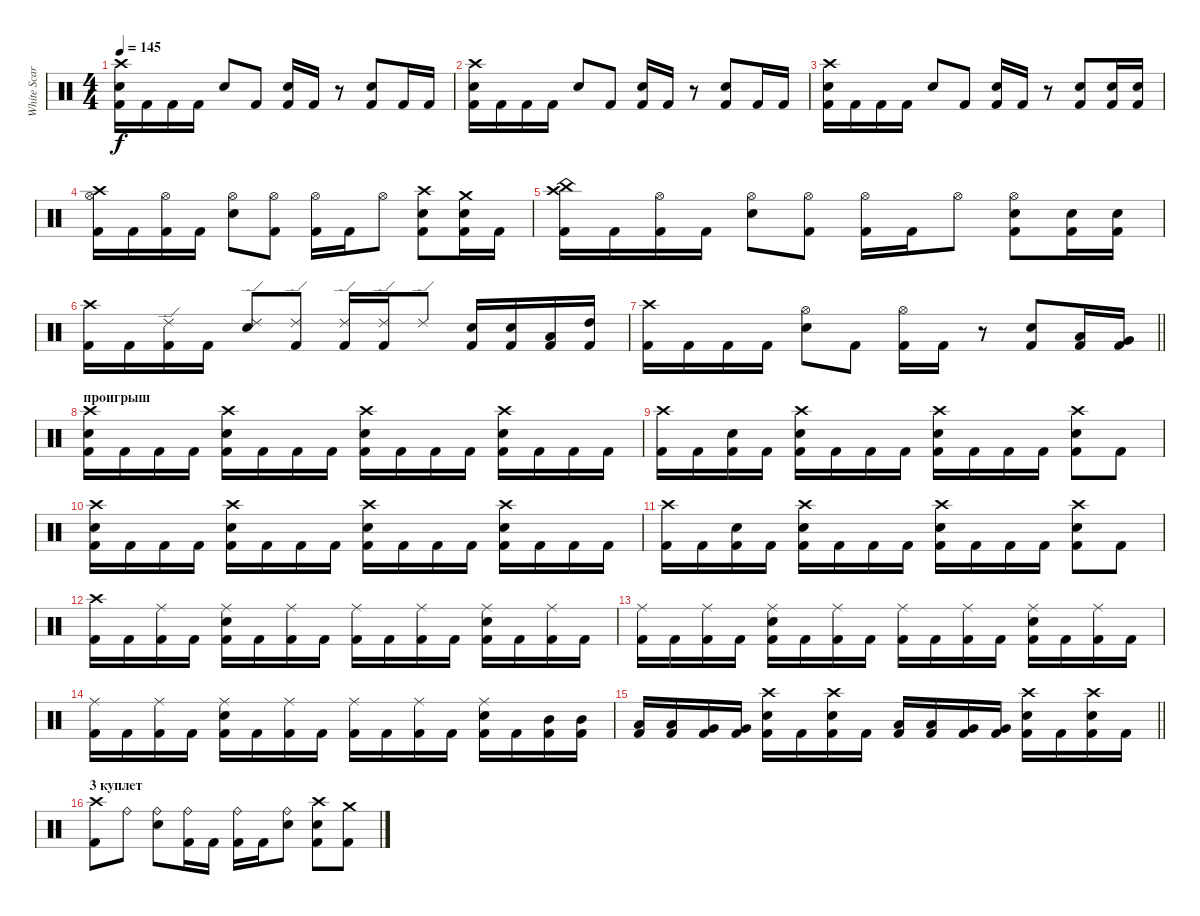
\track ("White Scar" "White Scar") {instrument percussion}
\staff {score}
\articulation defaults
\ts (4 4)
\tempo 145
\clef neutral
\ks c
("Crash high (hit)" "Snare (hit) 2" "Kick (hit) 2").16{dy f} "Kick (hit) 2".16 "Kick (hit) 2".16 "Kick (hit) 2".16 "Snare (hit) 2".8 "Kick (hit) 2".8 ("Snare (hit) 2" "Kick (hit) 2").16 "Kick (hit) 2".16 r.8 ("Snare (hit) 2" "Kick (hit) 2").8 "Kick (hit) 2".16 "Kick (hit) 2".16 |
("Crash high (hit)" "Snare (hit) 2" "Kick (hit) 2").16 "Kick (hit) 2".16 "Kick (hit) 2".16 "Kick (hit) 2".16 "Snare (hit) 2".8 "Kick (hit) 2".8 ("Snare (hit) 2" "Kick (hit) 2").16 "Kick (hit) 2".16 r.8 ("Snare (hit) 2" "Kick (hit) 2").8 "Kick (hit) 2".16 "Kick (hit) 2".16 |
("Crash high (hit)" "Snare (hit) 2" "Kick (hit) 2").16 "Kick (hit) 2".16 "Kick (hit) 2".16 "Kick (hit) 2".16 "Snare (hit) 2".8 "Kick (hit) 2".8 ("Snare (hit) 2" "Kick (hit) 2").16 "Kick (hit) 2".16 r.8 ("Snare (hit) 2" "Kick (hit) 2").8 ("Snare (hit) 2" "Kick (hit) 2").16 ("Snare (hit) 2" "Kick (hit) 2").16 |
("Crash high (hit)" "Hi-Hat (open)" "Kick (hit) 2").16 "Kick (hit) 2".16 ("Hi-Hat (open)" "Kick (hit) 2").16 "Kick (hit) 2".16 ("Snare (hit) 2" "Hi-Hat (open)").8 ("Hi-Hat (open)" "Kick (hit) 2").8 ("Hi-Hat (open)" "Kick (hit) 2").16 "Kick (hit) 2".16 "Hi-Hat (open)".8 ("Snare (hit) 2" "Crash high (hit)" "Kick (hit) 2").8 ("Snare (hit) 2" "Crash medium (hit)" "Kick (hit) 2").16 "Kick (hit) 2".16 |
("Crash high (hit)" "China (hit)" "Kick (hit) 2").16 "Kick (hit) 2".16 ("Hi-Hat (open)" "Kick (hit) 2").16 "Kick (hit) 2".16 ("Snare (hit) 2" "Hi-Hat (open)").8 ("Hi-Hat (open)" "Kick (hit) 2").8 ("Hi-Hat (open)" "Kick (hit) 2").16 "Kick (hit) 2".16 "Hi-Hat (open)".8 ("Snare (hit) 2" "Hi-Hat (open)" "Kick (hit) 2").8 ("Snare (hit) 2" "Kick (hit) 2").16 ("Snare (hit) 2" "Kick (hit) 2").16 |
("Crash high (hit)" "Kick (hit) 2").16 "Kick (hit) 2".16 ("Ride (edge) 2" "Kick (hit) 2").16 "Kick (hit) 2".16 ("Snare (hit) 2" "Ride (edge) 2").8 ("Ride (edge) 2" "Kick (hit) 2").8 ("Ride (edge) 2" "Kick (hit) 2").16 ("Ride (edge) 2" "Kick (hit) 2").16 "Ride (edge) 2".8 ("Snare (hit) 2" "Kick (hit) 2").16 ("Snare (hit) 2" "Kick (hit) 2").16 ("Low Tom (hit)" "Kick (hit) 2").16 ("High Tom (hit)" "Kick (hit) 2").16 |
\barLineRight lightlight
("Crash high (hit)" "Kick (hit) 2").16 "Kick (hit) 2".16 "Kick (hit) 2".16 "Kick (hit) 2".16 ("Snare (hit) 2" "Hi-Hat (open)").8 "Kick (hit) 2".8 ("Hi-Hat (open)" "Kick (hit) 2").16 "Kick (hit) 2".16 r.8 ("Snare (hit) 2" "Kick (hit) 2").8 ("Low Tom (hit)" "Kick (hit) 2").16 ("Very Low Tom (hit)" "Kick (hit) 2").16 |
\section ("" "проигрыш")
("Crash high (hit)" "Snare (hit) 2" "Kick (hit) 2").16 "Kick (hit) 2".16 "Kick (hit) 2".16 "Kick (hit) 2".16 ("Crash high (hit)" "Snare (hit) 2" "Kick (hit) 2").16 "Kick (hit) 2".16 "Kick (hit) 2".16 "Kick (hit) 2".16 ("Crash high (hit)" "Snare (hit) 2" "Kick (hit) 2").16 "Kick (hit) 2".16 "Kick (hit) 2".16 "Kick (hit) 2".16 ("Crash high (hit)" "Snare (hit) 2" "Kick (hit) 2").16 "Kick (hit) 2".16 "Kick (hit) 2".16 "Kick (hit) 2".16 |
("Crash high (hit)" "Kick (hit) 2").16 "Kick (hit) 2".16 ("Snare (hit) 2" "Kick (hit) 2").16 "Kick (hit) 2".16 ("Crash high (hit)" "Snare (hit) 2" "Kick (hit) 2").16 "Kick (hit) 2".16 "Kick (hit) 2".16 "Kick (hit) 2".16 ("Crash high (hit)" "Snare (hit) 2" "Kick (hit) 2").16 "Kick (hit) 2".16 "Kick (hit) 2".16 "Kick (hit) 2".16 ("Crash high (hit)" "Snare (hit) 2" "Kick (hit) 2").8 "Kick (hit) 2".8 |
("Crash high (hit)" "Snare (hit) 2" "Kick (hit) 2").16 "Kick (hit) 2".16 "Kick (hit) 2".16 "Kick (hit) 2".16 ("Crash high (hit)" "Snare (hit) 2" "Kick (hit) 2").16 "Kick (hit) 2".16 "Kick (hit) 2".16 "Kick (hit) 2".16 ("Crash high (hit)" "Snare (hit) 2" "Kick (hit) 2").16 "Kick (hit) 2".16 "Kick (hit) 2".16 "Kick (hit) 2".16 ("Crash high (hit)" "Snare (hit) 2" "Kick (hit) 2").16 "Kick (hit) 2".16 "Kick (hit) 2".16 "Kick (hit) 2".16 |
("Crash high (hit)" "Kick (hit) 2").16 "Kick (hit) 2".16 ("Snare (hit) 2" "Kick (hit) 2").16 "Kick (hit) 2".16 ("Crash high (hit)" "Snare (hit) 2" "Kick (hit) 2").16 "Kick (hit) 2".16 "Kick (hit) 2".16 "Kick (hit) 2".16 ("Crash high (hit)" "Snare (hit) 2" "Kick (hit) 2").16 "Kick (hit) 2".16 "Kick (hit) 2".16 "Kick (hit) 2".16 ("Crash high (hit)" "Snare (hit) 2" "Kick (hit) 2").8 "Kick (hit) 2".8 |
("Crash high (hit)" "Kick (hit) 2").16 "Kick (hit) 2".16 ("Ride (middle)" "Kick (hit) 2").16 "Kick (hit) 2".16 ("Ride (middle)" "Snare (hit) 2" "Kick (hit) 2").16 "Kick (hit) 2".16 ("Ride (middle)" "Kick (hit) 2").16 "Kick (hit) 2".16 ("Ride (middle)" "Kick (hit) 2").16 "Kick (hit) 2".16 ("Ride (middle)" "Kick (hit) 2").16 "Kick (hit) 2".16 ("Ride (middle)" "Snare (hit) 2" "Kick (hit) 2").16 "Kick (hit) 2".16 ("Ride (middle)" "Kick (hit) 2").16 "Kick (hit) 2".16 |
("Ride (middle)" "Kick (hit) 2").16 "Kick (hit) 2".16 ("Ride (middle)" "Kick (hit) 2").16 "Kick (hit) 2".16 ("Ride (middle)" "Snare (hit) 2" "Kick (hit) 2").16 "Kick (hit) 2".16 ("Ride (middle)" "Kick (hit) 2").16 "Kick (hit) 2".16 ("Ride (middle)" "Kick (hit) 2").16 "Kick (hit) 2".16 ("Ride (middle)" "Kick (hit) 2").16 "Kick (hit) 2".16 ("Ride (middle)" "Snare (hit) 2" "Kick (hit) 2").16 "Kick (hit) 2".16 ("Ride (middle)" "Kick (hit) 2").16 "Kick (hit) 2".16 |
("Ride (middle)" "Kick (hit) 2").16 "Kick (hit) 2".16 ("Ride (middle)" "Kick (hit) 2").16 "Kick (hit) 2".16 ("Ride (middle)" "Snare (hit) 2" "Kick (hit) 2").16 "Kick (hit) 2".16 ("Ride (middle)" "Kick (hit) 2").16 "Kick (hit) 2".16 ("Ride (middle)" "Kick (hit) 2").16 "Kick (hit) 2".16 ("Ride (middle)" "Kick (hit) 2").16 "Kick (hit) 2".16 ("Ride (middle)" "Snare (hit) 2" "Kick (hit) 2").16 "Kick (hit) 2".16 ("Mid Tom (hit)" "Kick (hit) 2").16 ("Mid Tom (hit)" "Kick (hit) 2").16 |
\barLineRight lightlight
("Low Tom (hit)" "Kick (hit) 2").16 ("Low Tom (hit)" "Kick (hit) 2").16 ("Very Low Tom (hit)" "Kick (hit) 2").16 ("Very Low Tom (hit)" "Kick (hit) 2").16 ("Crash high (hit)" "Snare (hit) 2" "Kick (hit) 2").16 "Kick (hit) 2".16 ("Crash high (hit)" "Snare (hit) 2" "Kick (hit) 2").16 "Kick (hit) 2".16 ("Low Tom (hit)" "Kick (hit) 2").16 ("Low Tom (hit)" "Kick (hit) 2").16 ("Very Low Tom (hit)" "Kick (hit) 2").16 ("Very Low Tom (hit)" "Kick (hit) 2").16 ("Crash high (hit)" "Snare (hit) 2" "Kick (hit) 2").16 "Kick (hit) 2".16 ("Crash high (hit)" "Snare (hit) 2" "Kick (hit) 2").16 "Kick (hit) 2".16 |
\section ("" "3 куплет")
("Crash high (hit)" "Kick (hit) 2").8 "Ride (bell)".8 ("Ride (bell)" "Snare (hit) 2").8 ("Ride (bell)" "Kick (hit) 2").16 "Kick (hit) 2".16 ("Ride (bell)" "Kick (hit) 2").16 "Kick (hit) 2".16 ("Ride (bell)" "Snare (hit) 2").8 ("Crash high (hit)" "Snare (hit) 2" "Kick (hit) 2").8 ("Crash medium (hit)" "Kick (hit) 2").8
